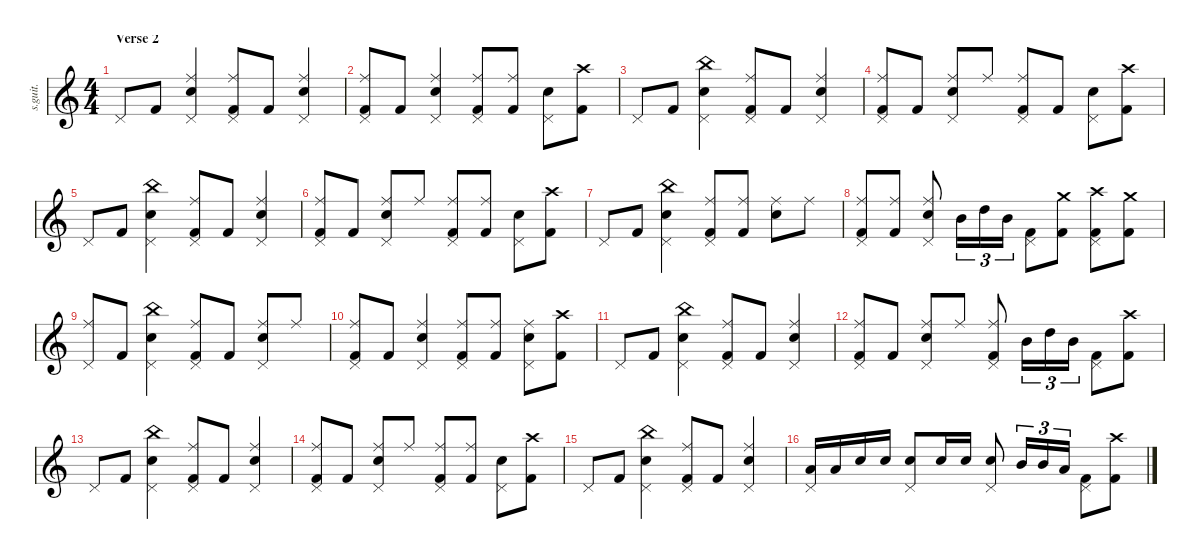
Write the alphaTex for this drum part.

\defaultSystemsLayout 4
\hideDynamics
\bracketExtendMode nobrackets
\track ("Nicko McBrain" "s.guit.") {instrument percussion}
\staff {score}
\articulation defaults
\ts (4 4)
\section ("" "Verse 2")
\tempo (162 hide)
\clef g2
\ks c "Pedal Hi-Hat (hit)".8{dy mf} "Kick (hit) 2".8
("Snare (hit) 2" "Ride (middle)" "Pedal Hi-Hat (hit)").4 ("Kick (hit) 2" "Ride (middle)" "Pedal Hi-Hat (hit)").8 "Kick (hit) 2".8 ("Ride (middle)" "Snare (hit) 2" "Pedal Hi-Hat (hit)").4 |
("Kick (hit) 2" "Ride (middle)" "Pedal Hi-Hat (hit)").8 "Kick (hit) 2".8 ("Ride (middle)" "Snare (hit) 2" "Pedal Hi-Hat (hit)").4 ("Pedal Hi-Hat (hit)" "Kick (hit) 2" "Ride (middle)").8 ("Kick (hit) 2" "Ride (middle)").8 ("Snare (hit) 2" "Pedal Hi-Hat (hit)").8 ("Crash high (hit)" "Kick (hit) 2").8 |
"Pedal Hi-Hat (hit)".8 "Kick (hit) 2".8 ("Snare (hit) 2" "Pedal Hi-Hat (hit)" "China (hit)").4 ("Kick (hit) 2" "Ride (middle)" "Pedal Hi-Hat (hit)").8 "Kick (hit) 2".8 ("Ride (middle)" "Snare (hit) 2" "Pedal Hi-Hat (hit)").4 |
("Kick (hit) 2" "Ride (middle)" "Pedal Hi-Hat (hit)").8 "Kick (hit) 2".8 ("Snare (hit) 2" "Pedal Hi-Hat (hit)" "Ride (middle)").8 "Ride (middle)".8 ("Ride (middle)" "Kick (hit) 2" "Pedal Hi-Hat (hit)").8 "Kick (hit) 2".8 ("Pedal Hi-Hat (hit)" "Snare (hit) 2").8 ("Kick (hit) 2" "Crash high (hit)").8 |
"Pedal Hi-Hat (hit)".8 "Kick (hit) 2".8 ("Snare (hit) 2" "Pedal Hi-Hat (hit)" "China (hit)").4 ("Kick (hit) 2" "Ride (middle)" "Pedal Hi-Hat (hit)").8 "Kick (hit) 2".8 ("Ride (middle)" "Snare (hit) 2" "Pedal Hi-Hat (hit)").4 |
("Kick (hit) 2" "Ride (middle)" "Pedal Hi-Hat (hit)").8 "Kick (hit) 2".8 ("Snare (hit) 2" "Pedal Hi-Hat (hit)" "Ride (middle)").8 "Ride (middle)".8 ("Pedal Hi-Hat (hit)" "Kick (hit) 2" "Ride (middle)").8 ("Kick (hit) 2" "Ride (middle)").8 ("Snare (hit) 2" "Pedal Hi-Hat (hit)").8 ("Crash high (hit)" "Kick (hit) 2").8 |
"Pedal Hi-Hat (hit)".8 "Kick (hit) 2".8 ("Pedal Hi-Hat (hit)" "Snare (hit) 2" "China (hit)").4 ("Kick (hit) 2" "Pedal Hi-Hat (hit)" "Ride (middle)").8 ("Kick (hit) 2" "Ride (middle)").8 ("Snare (hit) 2" "Ride (middle)").8 "Ride (middle)".8 |
("Ride (middle)" "Kick (hit) 2" "Pedal Hi-Hat (hit)").8 ("Ride (middle)" "Kick (hit) 2").8 ("Ride (middle)" "Snare (hit) 2" "Pedal Hi-Hat (hit)").8 "Mid Tom (hit)".16{tu (3 2)} "High Tom (hit)".16{tu (3 2)} "Mid Tom (hit)".16{tu (3 2)} ("Kick (hit) 2" "Pedal Hi-Hat (hit)").8 ("Kick (hit) 2" "Crash medium (hit)").8 ("Pedal Hi-Hat (hit)" "Kick (hit) 2" "Crash high (hit)").8 ("Kick (hit) 2" "Crash medium (hit)").8 |
("Pedal Hi-Hat (hit)" "Ride (middle)").8 "Kick (hit) 2".8 ("Snare (hit) 2" "China (hit)" "Pedal Hi-Hat (hit)").4 ("Pedal Hi-Hat (hit)" "Kick (hit) 2" "Ride (middle)").8 "Kick (hit) 2".8 ("Ride (middle)" "Pedal Hi-Hat (hit)" "Snare (hit) 2").8 "Ride (middle)".8 |
("Pedal Hi-Hat (hit)" "Kick (hit) 2" "Ride (middle)").8 "Kick (hit) 2".8 ("Ride (middle)" "Pedal Hi-Hat (hit)" "Snare (hit) 2").4 ("Pedal Hi-Hat (hit)" "Kick (hit) 2" "Ride (middle)").8 ("Kick (hit) 2" "Ride (middle)").8 ("Ride (middle)" "Pedal Hi-Hat (hit)" "Snare (hit) 2").8 ("Kick (hit) 2" "Crash high (hit)").8 |
"Pedal Hi-Hat (hit)".8 "Kick (hit) 2".8 ("Snare (hit) 2" "China (hit)" "Pedal Hi-Hat (hit)").4 ("Pedal Hi-Hat (hit)" "Kick (hit) 2" "Ride (middle)").8 "Kick (hit) 2".8 ("Ride (middle)" "Pedal Hi-Hat (hit)" "Snare (hit) 2").4 |
("Pedal Hi-Hat (hit)" "Kick (hit) 2" "Ride (middle)").8 "Kick (hit) 2".8 ("Ride (middle)" "Snare (hit) 2" "Pedal Hi-Hat (hit)").8 "Ride (middle)".8 ("Kick (hit) 2" "Pedal Hi-Hat (hit)" "Ride (middle)").8 "Mid Tom (hit)".16{tu (3 2)} "High Tom (hit)".16{tu (3 2)} "Mid Tom (hit)".16{tu (3 2)} ("Kick (hit) 2" "Pedal Hi-Hat (hit)").8 ("Kick (hit) 2" "Crash high (hit)").8 |
"Pedal Hi-Hat (hit)".8 "Kick (hit) 2".8 ("Snare (hit) 2" "China (hit)" "Pedal Hi-Hat (hit)").4 ("Pedal Hi-Hat (hit)" "Kick (hit) 2" "Ride (middle)").8 "Kick (hit) 2".8 ("Ride (middle)" "Pedal Hi-Hat (hit)" "Snare (hit) 2").4 |
("Kick (hit) 2" "Ride (middle)" "Pedal Hi-Hat (hit)").8 "Kick (hit) 2".8 ("Snare (hit) 2" "Pedal Hi-Hat (hit)" "Ride (middle)").8 "Ride (middle)".8 ("Pedal Hi-Hat (hit)" "Kick (hit) 2" "Ride (middle)").8 ("Kick (hit) 2" "Ride (middle)").8 ("Snare (hit) 2" "Pedal Hi-Hat (hit)").8 ("Crash high (hit)" "Kick (hit) 2").8 |
"Pedal Hi-Hat (hit)".8 "Kick (hit) 2".8 ("Snare (hit) 2" "China (hit)" "Pedal Hi-Hat (hit)").4 ("Pedal Hi-Hat (hit)" "Kick (hit) 2" "Ride (middle)").8 "Kick (hit) 2".8 ("Ride (middle)" "Pedal Hi-Hat (hit)" "Snare (hit) 2").4 |
("Pedal Hi-Hat (hit)" "Low Tom (hit)").16 "Low Tom (hit)".16 "Snare (hit) 2".16 "Snare (hit) 2".16 ("Snare (hit) 2" "Pedal Hi-Hat (hit)").8 "Snare (hit) 2".16 "Snare (hit) 2".16 ("Snare (hit) 2" "Pedal Hi-Hat (hit)").8 "Mid Tom (hit)".16{tu (3 2)} "Mid Tom (hit)".16{tu (3 2)} "Low Tom (hit)".16{tu (3 2)} ("Kick (hit) 2" "Pedal Hi-Hat (hit)").8 ("Kick (hit) 2" "Crash high (hit)").8
